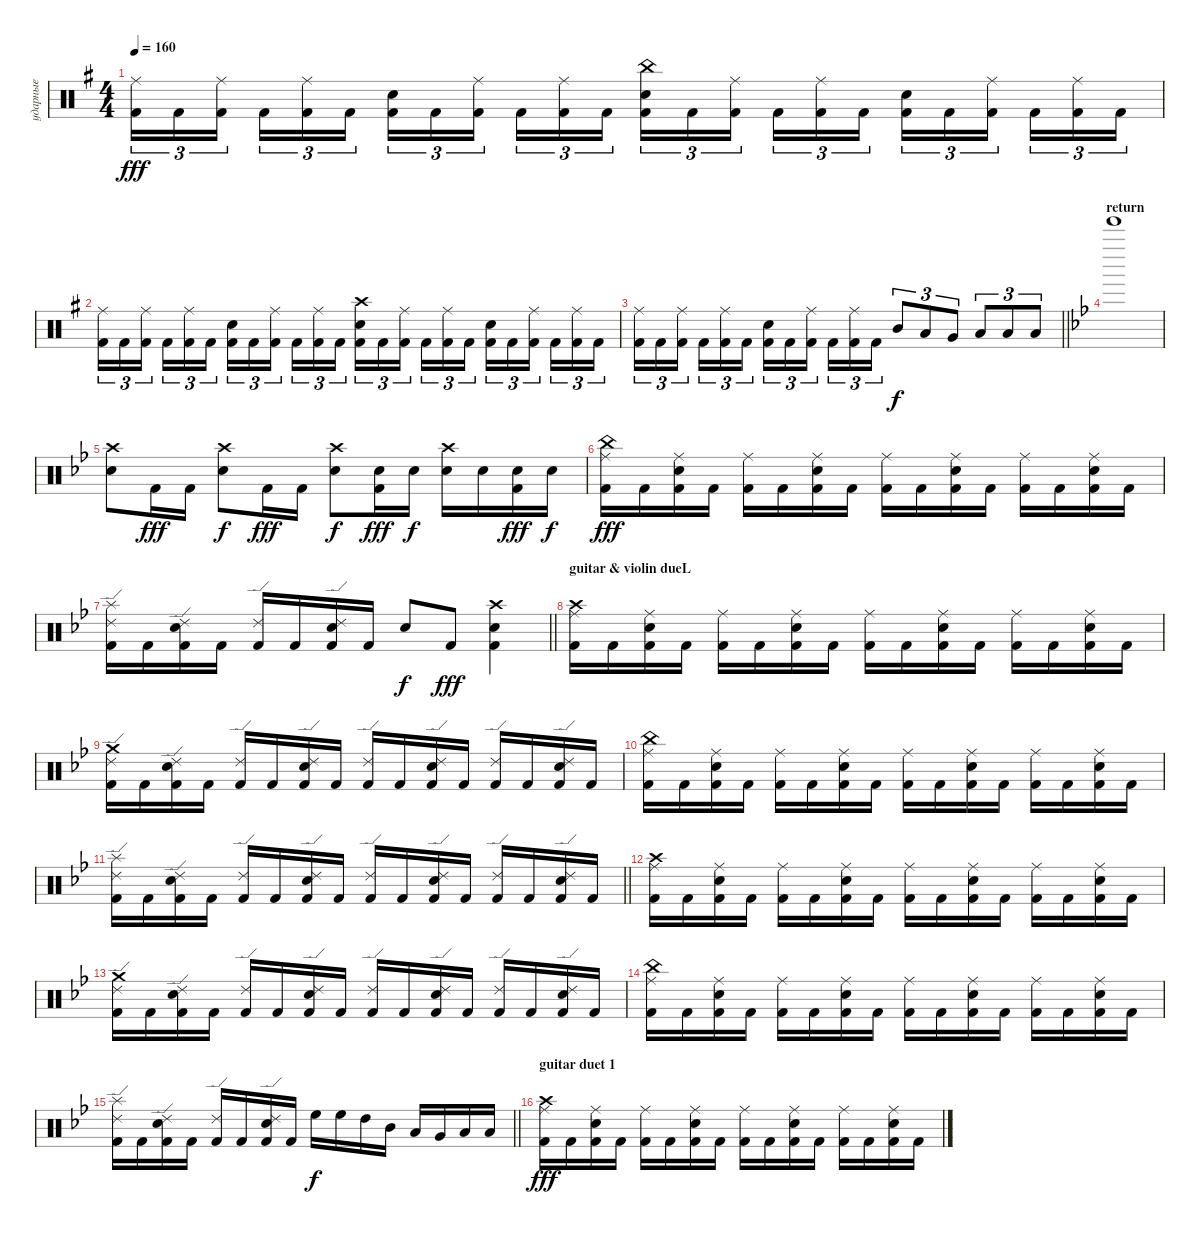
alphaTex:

\track ("ударные" "ударные") {instrument percussion}
\staff {score}
\articulation defaults
\ts (4 4)
\tempo 160
\clef neutral
\ks eminor
("Ride (middle)" "Kick (hit) 2").16{tu (3 2) dy fff} "Kick (hit) 2".16{tu (3 2)} ("Ride (middle)" "Kick (hit) 2").16{tu (3 2) beam splitsecondary} "Kick (hit) 2".16{tu (3 2)} ("Ride (middle)" "Kick (hit) 2").16{tu (3 2)} "Kick (hit) 2".16{tu (3 2)} ("Electric Snare (hit)" "Kick (hit) 2").16{tu (3 2)} "Kick (hit) 2".16{tu (3 2)} ("Ride (middle)" "Kick (hit) 2").16{tu (3 2) beam splitsecondary} "Kick (hit) 2".16{tu (3 2)} ("Ride (middle)" "Kick (hit) 2").16{tu (3 2)} "Kick (hit) 2".16{tu (3 2)} ("China (hit)" "Electric Snare (hit)" "Kick (hit) 2").16{tu (3 2)} "Kick (hit) 2".16{tu (3 2)} ("Ride (middle)" "Kick (hit) 2").16{tu (3 2) beam splitsecondary} "Kick (hit) 2".16{tu (3 2)} ("Ride (middle)" "Kick (hit) 2").16{tu (3 2)} "Kick (hit) 2".16{tu (3 2)} ("Electric Snare (hit)" "Kick (hit) 2").16{tu (3 2)} "Kick (hit) 2".16{tu (3 2)} ("Ride (middle)" "Kick (hit) 2").16{tu (3 2) beam splitsecondary} "Kick (hit) 2".16{tu (3 2)} ("Ride (middle)" "Kick (hit) 2").16{tu (3 2)} "Kick (hit) 2".16{tu (3 2)} |
("Ride (middle)" "Kick (hit) 2").16{tu (3 2)} "Kick (hit) 2".16{tu (3 2)} ("Ride (middle)" "Kick (hit) 2").16{tu (3 2) beam splitsecondary} "Kick (hit) 2".16{tu (3 2)} ("Ride (middle)" "Kick (hit) 2").16{tu (3 2)} "Kick (hit) 2".16{tu (3 2)} ("Electric Snare (hit)" "Kick (hit) 2").16{tu (3 2)} "Kick (hit) 2".16{tu (3 2)} ("Ride (middle)" "Kick (hit) 2").16{tu (3 2) beam splitsecondary} "Kick (hit) 2".16{tu (3 2)} ("Ride (middle)" "Kick (hit) 2").16{tu (3 2)} "Kick (hit) 2".16{tu (3 2)} ("Crash high (hit)" "Electric Snare (hit)" "Kick (hit) 2").16{tu (3 2)} "Kick (hit) 2".16{tu (3 2)} ("Ride (middle)" "Kick (hit) 2").16{tu (3 2) beam splitsecondary} "Kick (hit) 2".16{tu (3 2)} ("Ride (middle)" "Kick (hit) 2").16{tu (3 2)} "Kick (hit) 2".16{tu (3 2)} ("Electric Snare (hit)" "Kick (hit) 2").16{tu (3 2)} "Kick (hit) 2".16{tu (3 2)} ("Ride (middle)" "Kick (hit) 2").16{tu (3 2) beam splitsecondary} "Kick (hit) 2".16{tu (3 2)} ("Ride (middle)" "Kick (hit) 2").16{tu (3 2)} "Kick (hit) 2".16{tu (3 2)} |
\barLineRight lightlight
("Ride (middle)" "Kick (hit) 2").16{tu (3 2)} "Kick (hit) 2".16{tu (3 2)} ("Ride (middle)" "Kick (hit) 2").16{tu (3 2) beam splitsecondary} "Kick (hit) 2".16{tu (3 2)} ("Ride (middle)" "Kick (hit) 2").16{tu (3 2)} "Kick (hit) 2".16{tu (3 2)} ("Electric Snare (hit)" "Kick (hit) 2").16{tu (3 2)} "Kick (hit) 2".16{tu (3 2)} ("Ride (middle)" "Kick (hit) 2").16{tu (3 2) beam splitsecondary} "Kick (hit) 2".16{tu (3 2)} ("Ride (middle)" "Kick (hit) 2").16{tu (3 2)} "Kick (hit) 2".16{tu (3 2)} "Mid Tom (hit)".8{tu (3 2) dy f} "Low Tom (hit)".8{tu (3 2)} "Very Low Tom (hit)".8{tu (3 2)} "Low Floor Tom (hit)".8{tu (3 2)} "Low Floor Tom (hit)".8{tu (3 2)} "Low Floor Tom (hit)".8{tu (3 2)} |
\section ("" "return")
\ks gminor "Tinkle Bell (hit)".1
|
("Crash high (hit)" "Electric Snare (hit)").8 "Kick (hit) 2".16{dy fff} "Kick (hit) 2".16 ("Crash high (hit)" "Electric Snare (hit)").8{dy f} "Kick (hit) 2".16{dy fff} "Kick (hit) 2".16 ("Crash high (hit)" "Electric Snare (hit)").8{dy f} ("Kick (hit) 2" "Electric Snare (hit)").16{dy fff} "Electric Snare (hit)".16{dy f} ("Crash high (hit)" "Electric Snare (hit)").16 "Electric Snare (hit)".16 ("Kick (hit) 2" "Electric Snare (hit)").16{dy fff} "Electric Snare (hit)".16{dy f} |
("Ride (middle)" "Kick (hit) 2" "China (hit)").16{dy fff} "Kick (hit) 2".16 ("Ride (middle)" "Electric Snare (hit)" "Kick (hit) 2").16 "Kick (hit) 2".16 ("Ride (middle)" "Kick (hit) 2").16 "Kick (hit) 2".16 ("Ride (middle)" "Electric Snare (hit)" "Kick (hit) 2").16 "Kick (hit) 2".16 ("Ride (middle)" "Kick (hit) 2").16 "Kick (hit) 2".16 ("Ride (middle)" "Electric Snare (hit)" "Kick (hit) 2").16 "Kick (hit) 2".16 ("Ride (middle)" "Kick (hit) 2").16 "Kick (hit) 2".16 ("Ride (middle)" "Electric Snare (hit)" "Kick (hit) 2").16 "Kick (hit) 2".16 |
\barLineRight lightlight
("Ride (edge) 2" "Kick (hit) 2" "Splash (hit)").16 "Kick (hit) 2".16 ("Ride (edge) 2" "Electric Snare (hit)" "Kick (hit) 2").16 "Kick (hit) 2".16 ("Ride (edge) 2" "Kick (hit) 2").16 "Kick (hit) 2".16 ("Ride (edge) 2" "Electric Snare (hit)" "Kick (hit) 2").16 "Kick (hit) 2".16 "Electric Snare (hit)".8{dy f} "Kick (hit) 2".8{dy fff} ("Crash high (hit)" "Electric Snare (hit)" "Kick (hit) 2").4 |
\section ("" "guitar & violin dueL")
("Ride (middle)" "Kick (hit) 2" "Crash high (hit)").16 "Kick (hit) 2".16 ("Ride (middle)" "Electric Snare (hit)" "Kick (hit) 2").16 "Kick (hit) 2".16 ("Ride (middle)" "Kick (hit) 2").16 "Kick (hit) 2".16 ("Ride (middle)" "Electric Snare (hit)" "Kick (hit) 2").16 "Kick (hit) 2".16 ("Ride (middle)" "Kick (hit) 2").16 "Kick (hit) 2".16 ("Ride (middle)" "Electric Snare (hit)" "Kick (hit) 2").16 "Kick (hit) 2".16 ("Ride (middle)" "Kick (hit) 2").16 "Kick (hit) 2".16 ("Ride (middle)" "Electric Snare (hit)" "Kick (hit) 2").16 "Kick (hit) 2".16 |
("Ride (edge) 2" "Kick (hit) 2" "Crash medium (hit)").16 "Kick (hit) 2".16 ("Ride (edge) 2" "Electric Snare (hit)" "Kick (hit) 2").16 "Kick (hit) 2".16 ("Ride (edge) 2" "Kick (hit) 2").16 "Kick (hit) 2".16 ("Ride (edge) 2" "Electric Snare (hit)" "Kick (hit) 2").16 "Kick (hit) 2".16 ("Ride (edge) 2" "Kick (hit) 2").16 "Kick (hit) 2".16 ("Ride (edge) 2" "Electric Snare (hit)" "Kick (hit) 2").16 "Kick (hit) 2".16 ("Ride (edge) 2" "Kick (hit) 2").16 "Kick (hit) 2".16 ("Ride (edge) 2" "Electric Snare (hit)" "Kick (hit) 2").16 "Kick (hit) 2".16 |
("Ride (middle)" "Kick (hit) 2" "China (hit)").16 "Kick (hit) 2".16 ("Ride (middle)" "Electric Snare (hit)" "Kick (hit) 2").16 "Kick (hit) 2".16 ("Ride (middle)" "Kick (hit) 2").16 "Kick (hit) 2".16 ("Ride (middle)" "Electric Snare (hit)" "Kick (hit) 2").16 "Kick (hit) 2".16 ("Ride (middle)" "Kick (hit) 2").16 "Kick (hit) 2".16 ("Ride (middle)" "Electric Snare (hit)" "Kick (hit) 2").16 "Kick (hit) 2".16 ("Ride (middle)" "Kick (hit) 2").16 "Kick (hit) 2".16 ("Ride (middle)" "Electric Snare (hit)" "Kick (hit) 2").16 "Kick (hit) 2".16 |
\barLineRight lightlight
("Ride (edge) 2" "Kick (hit) 2" "Splash (hit)").16 "Kick (hit) 2".16 ("Ride (edge) 2" "Electric Snare (hit)" "Kick (hit) 2").16 "Kick (hit) 2".16 ("Ride (edge) 2" "Kick (hit) 2").16 "Kick (hit) 2".16 ("Ride (edge) 2" "Electric Snare (hit)" "Kick (hit) 2").16 "Kick (hit) 2".16 ("Ride (edge) 2" "Kick (hit) 2").16 "Kick (hit) 2".16 ("Ride (edge) 2" "Electric Snare (hit)" "Kick (hit) 2").16 "Kick (hit) 2".16 ("Ride (edge) 2" "Kick (hit) 2").16 "Kick (hit) 2".16 ("Ride (edge) 2" "Electric Snare (hit)" "Kick (hit) 2").16 "Kick (hit) 2".16 |
("Ride (middle)" "Kick (hit) 2" "Crash high (hit)").16 "Kick (hit) 2".16 ("Ride (middle)" "Electric Snare (hit)" "Kick (hit) 2").16 "Kick (hit) 2".16 ("Ride (middle)" "Kick (hit) 2").16 "Kick (hit) 2".16 ("Ride (middle)" "Electric Snare (hit)" "Kick (hit) 2").16 "Kick (hit) 2".16 ("Ride (middle)" "Kick (hit) 2").16 "Kick (hit) 2".16 ("Ride (middle)" "Electric Snare (hit)" "Kick (hit) 2").16 "Kick (hit) 2".16 ("Ride (middle)" "Kick (hit) 2").16 "Kick (hit) 2".16 ("Ride (middle)" "Electric Snare (hit)" "Kick (hit) 2").16 "Kick (hit) 2".16 |
("Ride (edge) 2" "Kick (hit) 2" "Crash medium (hit)").16 "Kick (hit) 2".16 ("Ride (edge) 2" "Electric Snare (hit)" "Kick (hit) 2").16 "Kick (hit) 2".16 ("Ride (edge) 2" "Kick (hit) 2").16 "Kick (hit) 2".16 ("Ride (edge) 2" "Electric Snare (hit)" "Kick (hit) 2").16 "Kick (hit) 2".16 ("Ride (edge) 2" "Kick (hit) 2").16 "Kick (hit) 2".16 ("Ride (edge) 2" "Electric Snare (hit)" "Kick (hit) 2").16 "Kick (hit) 2".16 ("Ride (edge) 2" "Kick (hit) 2").16 "Kick (hit) 2".16 ("Ride (edge) 2" "Electric Snare (hit)" "Kick (hit) 2").16 "Kick (hit) 2".16 |
("Ride (middle)" "Kick (hit) 2" "China (hit)").16 "Kick (hit) 2".16 ("Ride (middle)" "Electric Snare (hit)" "Kick (hit) 2").16 "Kick (hit) 2".16 ("Ride (middle)" "Kick (hit) 2").16 "Kick (hit) 2".16 ("Ride (middle)" "Electric Snare (hit)" "Kick (hit) 2").16 "Kick (hit) 2".16 ("Ride (middle)" "Kick (hit) 2").16 "Kick (hit) 2".16 ("Ride (middle)" "Electric Snare (hit)" "Kick (hit) 2").16 "Kick (hit) 2".16 ("Ride (middle)" "Kick (hit) 2").16 "Kick (hit) 2".16 ("Ride (middle)" "Electric Snare (hit)" "Kick (hit) 2").16 "Kick (hit) 2".16 |
\barLineRight lightlight
("Ride (edge) 2" "Kick (hit) 2" "Splash (hit)").16 "Kick (hit) 2".16 ("Ride (edge) 2" "Electric Snare (hit)" "Kick (hit) 2").16 "Kick (hit) 2".16 ("Ride (edge) 2" "Kick (hit) 2").16 "Kick (hit) 2".16 ("Ride (edge) 2" "Electric Snare (hit)" "Kick (hit) 2").16 "Kick (hit) 2".16 "High Floor Tom (hit)".16{dy f} "High Floor Tom (hit)".16 "High Tom (hit)".16 "Mid Tom (hit)".16 "Low Tom (hit)".16 "Very Low Tom (hit)".16 "Low Floor Tom (hit)".16 "Low Floor Tom (hit)".16 |
\section ("" "guitar duet 1")
("Ride (middle)" "Kick (hit) 2" "Crash high (hit)").16{dy fff} "Kick (hit) 2".16 ("Ride (middle)" "Electric Snare (hit)" "Kick (hit) 2").16 "Kick (hit) 2".16 ("Ride (middle)" "Kick (hit) 2").16 "Kick (hit) 2".16 ("Ride (middle)" "Electric Snare (hit)" "Kick (hit) 2").16 "Kick (hit) 2".16 ("Ride (middle)" "Kick (hit) 2").16 "Kick (hit) 2".16 ("Ride (middle)" "Electric Snare (hit)" "Kick (hit) 2").16 "Kick (hit) 2".16 ("Ride (middle)" "Kick (hit) 2").16 "Kick (hit) 2".16 ("Ride (middle)" "Electric Snare (hit)" "Kick (hit) 2").16 "Kick (hit) 2".16
